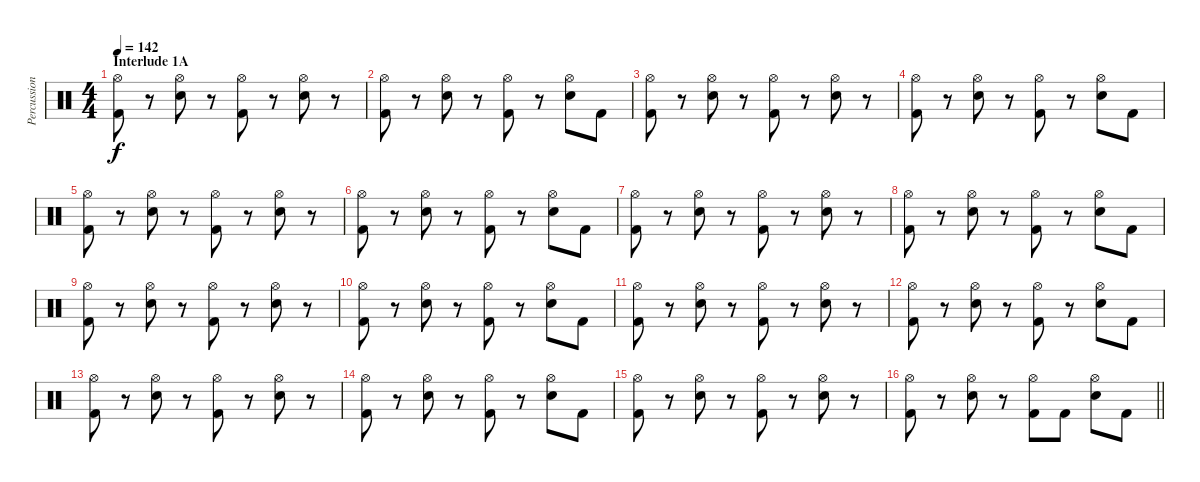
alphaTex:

\track ("Percussion" "Percussion") {instrument percussion}
\staff {score}
\articulation defaults
\ts (4 4)
\section ("" "Interlude 1A")
\tempo 142
\clef neutral
\ks c
("Hi-Hat (open)" "Kick (hit) 2").8{dy f} r.8 ("Hi-Hat (open)" "Electric Snare (hit)").8 r.8 ("Hi-Hat (open)" "Kick (hit) 2").8 r.8 ("Hi-Hat (open)" "Electric Snare (hit)").8 r.8 |
("Hi-Hat (open)" "Kick (hit) 2").8 r.8 ("Hi-Hat (open)" "Electric Snare (hit)").8 r.8 ("Hi-Hat (open)" "Kick (hit) 2").8 r.8 ("Hi-Hat (open)" "Electric Snare (hit)").8 "Kick (hit) 2".8 |
("Hi-Hat (open)" "Kick (hit) 2").8 r.8 ("Hi-Hat (open)" "Electric Snare (hit)").8 r.8 ("Hi-Hat (open)" "Kick (hit) 2").8 r.8 ("Hi-Hat (open)" "Electric Snare (hit)").8 r.8 |
("Hi-Hat (open)" "Kick (hit) 2").8 r.8 ("Hi-Hat (open)" "Electric Snare (hit)").8 r.8 ("Hi-Hat (open)" "Kick (hit) 2").8 r.8 ("Hi-Hat (open)" "Electric Snare (hit)").8 "Kick (hit) 2".8 |
("Hi-Hat (open)" "Kick (hit) 2").8 r.8 ("Hi-Hat (open)" "Electric Snare (hit)").8 r.8 ("Hi-Hat (open)" "Kick (hit) 2").8 r.8 ("Hi-Hat (open)" "Electric Snare (hit)").8 r.8 |
("Hi-Hat (open)" "Kick (hit) 2").8 r.8 ("Hi-Hat (open)" "Electric Snare (hit)").8 r.8 ("Hi-Hat (open)" "Kick (hit) 2").8 r.8 ("Hi-Hat (open)" "Electric Snare (hit)").8 "Kick (hit) 2".8 |
("Hi-Hat (open)" "Kick (hit) 2").8 r.8 ("Hi-Hat (open)" "Electric Snare (hit)").8 r.8 ("Hi-Hat (open)" "Kick (hit) 2").8 r.8 ("Hi-Hat (open)" "Electric Snare (hit)").8 r.8 |
("Hi-Hat (open)" "Kick (hit) 2").8 r.8 ("Hi-Hat (open)" "Electric Snare (hit)").8 r.8 ("Hi-Hat (open)" "Kick (hit) 2").8 r.8 ("Hi-Hat (open)" "Electric Snare (hit)").8 "Kick (hit) 2".8 |
("Hi-Hat (open)" "Kick (hit) 2").8 r.8 ("Hi-Hat (open)" "Electric Snare (hit)").8 r.8 ("Hi-Hat (open)" "Kick (hit) 2").8 r.8 ("Hi-Hat (open)" "Electric Snare (hit)").8 r.8 |
("Hi-Hat (open)" "Kick (hit) 2").8 r.8 ("Hi-Hat (open)" "Electric Snare (hit)").8 r.8 ("Hi-Hat (open)" "Kick (hit) 2").8 r.8 ("Hi-Hat (open)" "Electric Snare (hit)").8 "Kick (hit) 2".8 |
("Hi-Hat (open)" "Kick (hit) 2").8 r.8 ("Hi-Hat (open)" "Electric Snare (hit)").8 r.8 ("Hi-Hat (open)" "Kick (hit) 2").8 r.8 ("Hi-Hat (open)" "Electric Snare (hit)").8 r.8 |
("Hi-Hat (open)" "Kick (hit) 2").8 r.8 ("Hi-Hat (open)" "Electric Snare (hit)").8 r.8 ("Hi-Hat (open)" "Kick (hit) 2").8 r.8 ("Hi-Hat (open)" "Electric Snare (hit)").8 "Kick (hit) 2".8 |
("Hi-Hat (open)" "Kick (hit) 2").8 r.8 ("Hi-Hat (open)" "Electric Snare (hit)").8 r.8 ("Hi-Hat (open)" "Kick (hit) 2").8 r.8 ("Hi-Hat (open)" "Electric Snare (hit)").8 r.8 |
("Hi-Hat (open)" "Kick (hit) 2").8 r.8 ("Hi-Hat (open)" "Electric Snare (hit)").8 r.8 ("Hi-Hat (open)" "Kick (hit) 2").8 r.8 ("Hi-Hat (open)" "Electric Snare (hit)").8 "Kick (hit) 2".8 |
("Hi-Hat (open)" "Kick (hit) 2").8 r.8 ("Hi-Hat (open)" "Electric Snare (hit)").8 r.8 ("Hi-Hat (open)" "Kick (hit) 2").8 r.8 ("Hi-Hat (open)" "Electric Snare (hit)").8 r.8 |
\barLineRight lightlight
("Hi-Hat (open)" "Kick (hit) 2").8 r.8 ("Hi-Hat (open)" "Electric Snare (hit)").8 r.8 ("Hi-Hat (open)" "Kick (hit) 2").8 "Kick (hit) 2".8 ("Hi-Hat (open)" "Electric Snare (hit)").8 "Kick (hit) 2".8
